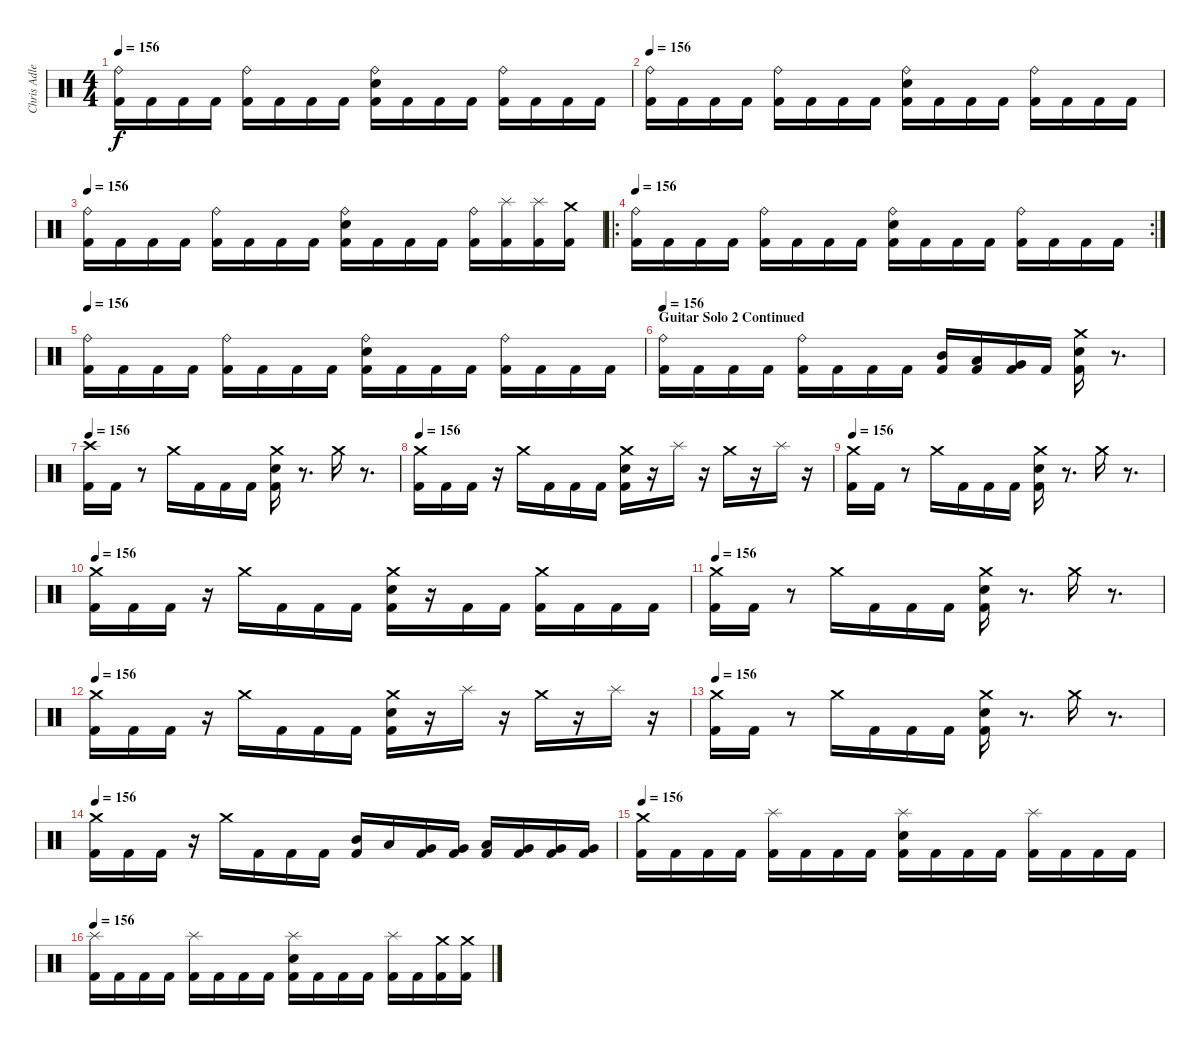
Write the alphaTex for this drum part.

\track ("Chris Adler" "Chris Adle") {instrument percussion}
\staff {score}
\articulation defaults
\ts (4 4)
\tempo 156
\clef neutral
\ks c
("Ride (bell)" "Kick (hit) 2").16{dy f} "Kick (hit) 2".16 "Kick (hit) 2".16 "Kick (hit) 2".16 ("Ride (bell)" "Kick (hit) 2").16 "Kick (hit) 2".16 "Kick (hit) 2".16 "Kick (hit) 2".16 ("Ride (bell)" "Snare (hit) 2" "Kick (hit) 2").16 "Kick (hit) 2".16 "Kick (hit) 2".16 "Kick (hit) 2".16 ("Ride (bell)" "Kick (hit) 2").16 "Kick (hit) 2".16 "Kick (hit) 2".16 "Kick (hit) 2".16 |
\tempo 156
("Ride (bell)" "Kick (hit) 2").16 "Kick (hit) 2".16 "Kick (hit) 2".16 "Kick (hit) 2".16 ("Ride (bell)" "Kick (hit) 2").16 "Kick (hit) 2".16 "Kick (hit) 2".16 "Kick (hit) 2".16 ("Ride (bell)" "Snare (hit) 2" "Kick (hit) 2").16 "Kick (hit) 2".16 "Kick (hit) 2".16 "Kick (hit) 2".16 ("Ride (bell)" "Kick (hit) 2").16 "Kick (hit) 2".16 "Kick (hit) 2".16 "Kick (hit) 2".16 |
\tempo 156
("Ride (bell)" "Kick (hit) 2").16 "Kick (hit) 2".16 "Kick (hit) 2".16 "Kick (hit) 2".16 ("Ride (bell)" "Kick (hit) 2").16 "Kick (hit) 2".16 "Kick (hit) 2".16 "Kick (hit) 2".16 ("Ride (bell)" "Snare (hit) 2" "Kick (hit) 2").16 "Kick (hit) 2".16 "Kick (hit) 2".16 "Kick (hit) 2".16 ("Ride (bell)" "Kick (hit) 2").16 ("Splash (hit)" "Kick (hit) 2").16 ("Splash (hit)" "Kick (hit) 2").16 ("Crash medium (hit)" "Kick (hit) 2").16 |
\ro
\rc 2
\tempo 156
("Ride (bell)" "Kick (hit) 2").16 "Kick (hit) 2".16 "Kick (hit) 2".16 "Kick (hit) 2".16 ("Ride (bell)" "Kick (hit) 2").16 "Kick (hit) 2".16 "Kick (hit) 2".16 "Kick (hit) 2".16 ("Ride (bell)" "Snare (hit) 2" "Kick (hit) 2").16 "Kick (hit) 2".16 "Kick (hit) 2".16 "Kick (hit) 2".16 ("Ride (bell)" "Kick (hit) 2").16 "Kick (hit) 2".16 "Kick (hit) 2".16 "Kick (hit) 2".16 |
\tempo 156
("Ride (bell)" "Kick (hit) 2").16 "Kick (hit) 2".16 "Kick (hit) 2".16 "Kick (hit) 2".16 ("Ride (bell)" "Kick (hit) 2").16 "Kick (hit) 2".16 "Kick (hit) 2".16 "Kick (hit) 2".16 ("Ride (bell)" "Snare (hit) 2" "Kick (hit) 2").16 "Kick (hit) 2".16 "Kick (hit) 2".16 "Kick (hit) 2".16 ("Ride (bell)" "Kick (hit) 2").16 "Kick (hit) 2".16 "Kick (hit) 2".16 "Kick (hit) 2".16 |
\section ("" "Guitar Solo 2 Continued")
\tempo 156
("Ride (bell)" "Kick (hit) 2").16 "Kick (hit) 2".16 "Kick (hit) 2".16 "Kick (hit) 2".16 ("Ride (bell)" "Kick (hit) 2").16 "Kick (hit) 2".16 "Kick (hit) 2".16 "Kick (hit) 2".16 ("Mid Tom (hit)" "Kick (hit) 2").16 ("Low Tom (hit)" "Kick (hit) 2").16 ("Very Low Tom (hit)" "Kick (hit) 2").16 "Kick (hit) 2".16 ("Crash medium (hit)" "Snare (hit) 2" "Kick (hit) 2").16 r.8{d} |
\tempo 156
("Crash high (hit)" "Kick (hit) 2").16 "Kick (hit) 2".16 r.8 "Crash medium (hit)".16 "Kick (hit) 2".16 "Kick (hit) 2".16 "Kick (hit) 2".16 ("Crash medium (hit)" "Snare (hit) 2" "Kick (hit) 2").16 r.8{d} "Crash medium (hit)".16 r.8{d} |
\tempo 156
("Crash medium (hit)" "Kick (hit) 2").16 "Kick (hit) 2".16 "Kick (hit) 2".16 r.16 "Crash medium (hit)".16 "Kick (hit) 2".16 "Kick (hit) 2".16 "Kick (hit) 2".16 ("Crash medium (hit)" "Snare (hit) 2" "Kick (hit) 2").16 r.16 "Splash (hit)".16 r.16 "Crash medium (hit)".16 r.16 "Splash (hit)".16 r.16 |
\tempo 156
("Crash medium (hit)" "Kick (hit) 2").16 "Kick (hit) 2".16 r.8 "Crash medium (hit)".16 "Kick (hit) 2".16 "Kick (hit) 2".16 "Kick (hit) 2".16 ("Crash medium (hit)" "Snare (hit) 2" "Kick (hit) 2").16 r.8{d} "Crash medium (hit)".16 r.8{d} |
\tempo 156
("Crash medium (hit)" "Kick (hit) 2").16 "Kick (hit) 2".16 "Kick (hit) 2".16 r.16 "Crash medium (hit)".16 "Kick (hit) 2".16 "Kick (hit) 2".16 "Kick (hit) 2".16 ("Crash medium (hit)" "Snare (hit) 2" "Kick (hit) 2").16 r.16 "Kick (hit) 2".16 "Kick (hit) 2".16 ("Crash medium (hit)" "Kick (hit) 2").16 "Kick (hit) 2".16 "Kick (hit) 2".16 "Kick (hit) 2".16 |
\tempo 156
("Crash medium (hit)" "Kick (hit) 2").16 "Kick (hit) 2".16 r.8 "Crash medium (hit)".16 "Kick (hit) 2".16 "Kick (hit) 2".16 "Kick (hit) 2".16 ("Crash medium (hit)" "Snare (hit) 2" "Kick (hit) 2").16 r.8{d} "Crash medium (hit)".16 r.8{d} |
\tempo 156
("Crash medium (hit)" "Kick (hit) 2").16 "Kick (hit) 2".16 "Kick (hit) 2".16 r.16 "Crash medium (hit)".16 "Kick (hit) 2".16 "Kick (hit) 2".16 "Kick (hit) 2".16 ("Crash medium (hit)" "Snare (hit) 2" "Kick (hit) 2").16 r.16 "Splash (hit)".16 r.16 "Crash medium (hit)".16 r.16 "Splash (hit)".16 r.16 |
\tempo 156
("Crash medium (hit)" "Kick (hit) 2").16 "Kick (hit) 2".16 r.8 "Crash medium (hit)".16 "Kick (hit) 2".16 "Kick (hit) 2".16 "Kick (hit) 2".16 ("Crash medium (hit)" "Snare (hit) 2" "Kick (hit) 2").16 r.8{d} "Crash medium (hit)".16 r.8{d} |
\tempo 156
("Crash medium (hit)" "Kick (hit) 2").16 "Kick (hit) 2".16 "Kick (hit) 2".16 r.16 "Crash medium (hit)".16 "Kick (hit) 2".16 "Kick (hit) 2".16 "Kick (hit) 2".16 ("Mid Tom (hit)" "Kick (hit) 2").16 "Low Tom (hit)".16 ("Very Low Tom (hit)" "Kick (hit) 2").16 ("Very Low Tom (hit)" "Kick (hit) 2").16 ("Low Tom (hit)" "Kick (hit) 2").16 ("Very Low Tom (hit)" "Kick (hit) 2").16 ("Very Low Tom (hit)" "Kick (hit) 2").16 ("Very Low Tom (hit)" "Kick (hit) 2").16 |
\tempo 156
("Crash medium (hit)" "Kick (hit) 2").16 "Kick (hit) 2".16 "Kick (hit) 2".16 "Kick (hit) 2".16 ("Splash (hit)" "Kick (hit) 2").16 "Kick (hit) 2".16 "Kick (hit) 2".16 "Kick (hit) 2".16 ("Splash (hit)" "Snare (hit) 2" "Kick (hit) 2").16 "Kick (hit) 2".16 "Kick (hit) 2".16 "Kick (hit) 2".16 ("Splash (hit)" "Kick (hit) 2").16 "Kick (hit) 2".16 "Kick (hit) 2".16 "Kick (hit) 2".16 |
\tempo 156
("Splash (hit)" "Kick (hit) 2").16 "Kick (hit) 2".16 "Kick (hit) 2".16 "Kick (hit) 2".16 ("Splash (hit)" "Kick (hit) 2").16 "Kick (hit) 2".16 "Kick (hit) 2".16 "Kick (hit) 2".16 ("Splash (hit)" "Snare (hit) 2" "Kick (hit) 2").16 "Kick (hit) 2".16 "Kick (hit) 2".16 "Kick (hit) 2".16 ("Splash (hit)" "Kick (hit) 2").16 "Kick (hit) 2".16 ("Crash medium (hit)" "Kick (hit) 2").16 ("Crash medium (hit)" "Kick (hit) 2").16
